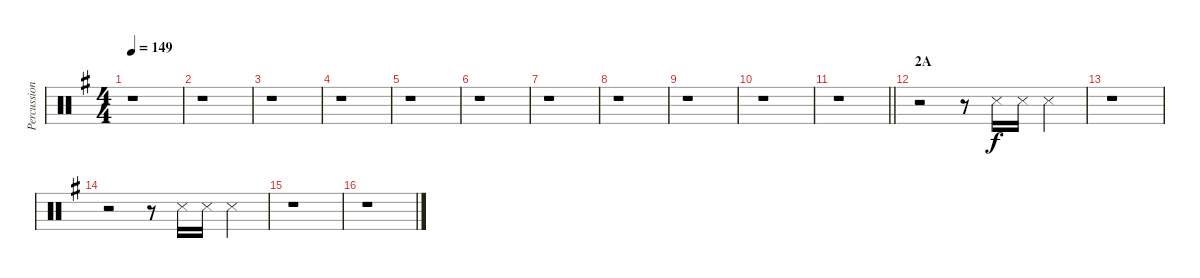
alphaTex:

\track ("Percussions" "Percussion") {instrument percussion}
\staff {score}
\articulation defaults
\ts (4 4)
\tempo 149
\clef neutral
\ks g
r.1{dy f} |
r.1 |
r.1 |
r.1 |
r.1 |
r.1 |
r.1 |
r.1 |
r.1 |
r.1 |
\barLineRight lightlight
r.1 |
\section ("" "2A")
r.2 r.8 "Metronome (hit)".16 "Metronome (hit)".16 "Metronome (hit)".4 |
r.1 |
r.2 r.8 "Metronome (hit)".16 "Metronome (hit)".16 "Metronome (hit)".4 |
r.1 |
r.1
